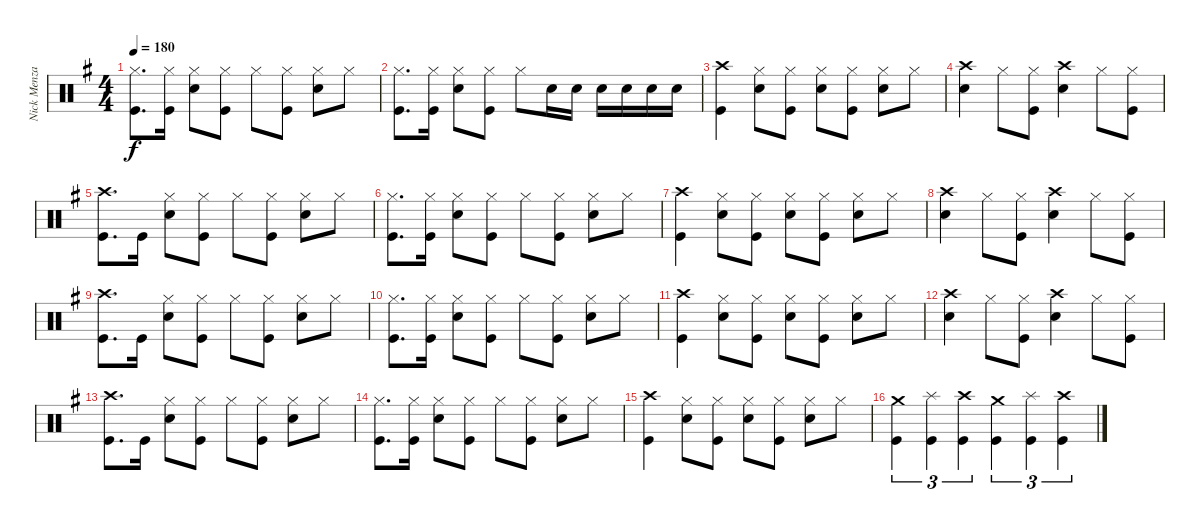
\track ("Nick Menza" "Nick Menza") {instrument percussion}
\staff {score}
\articulation defaults
\ts (4 4)
\tempo 180
\clef neutral
\ks g
("Kick (hit)" "Hi-Hat (closed)").8{d dy f} ("Kick (hit)" "Hi-Hat (closed)").16 ("Hi-Hat (closed)" "Snare (hit) 2").8 ("Kick (hit)" "Hi-Hat (closed)").8 "Hi-Hat (closed)".8 ("Kick (hit)" "Hi-Hat (closed)").8 ("Hi-Hat (closed)" "Snare (hit) 2").8 "Hi-Hat (closed)".8 |
("Kick (hit)" "Hi-Hat (closed)").8{d} ("Kick (hit)" "Hi-Hat (closed)").16 ("Hi-Hat (closed)" "Snare (hit) 2").8 ("Kick (hit)" "Hi-Hat (closed)").8 "Hi-Hat (closed)".8 "Snare (hit) 2".16 "Snare (hit) 2".16 "Snare (hit) 2".16 "Snare (hit) 2".16 "Snare (hit) 2".16 "Snare (hit) 2".16 |
("Crash high (hit)" "Kick (hit)").4 ("Hi-Hat (closed)" "Snare (hit) 2").8 ("Kick (hit)" "Hi-Hat (closed)").8 ("Hi-Hat (closed)" "Snare (hit) 2").8 ("Kick (hit)" "Hi-Hat (closed)").8 ("Hi-Hat (closed)" "Snare (hit) 2").8 "Hi-Hat (closed)".8 |
("Crash high (hit)" "Snare (hit) 2").4 "Hi-Hat (closed)".8 ("Kick (hit)" "Hi-Hat (closed)").8 ("Crash high (hit)" "Snare (hit) 2").4 "Hi-Hat (closed)".8 ("Kick (hit)" "Hi-Hat (closed)").8 |
("Kick (hit)" "Crash high (hit)").8{d} "Kick (hit)".16 ("Hi-Hat (closed)" "Snare (hit) 2").8 ("Kick (hit)" "Hi-Hat (closed)").8 "Hi-Hat (closed)".8 ("Kick (hit)" "Hi-Hat (closed)").8 ("Hi-Hat (closed)" "Snare (hit) 2").8 "Hi-Hat (closed)".8 |
("Kick (hit)" "Hi-Hat (closed)").8{d} ("Kick (hit)" "Hi-Hat (closed)").16 ("Hi-Hat (closed)" "Snare (hit) 2").8 ("Kick (hit)" "Hi-Hat (closed)").8 "Hi-Hat (closed)".8 ("Kick (hit)" "Hi-Hat (closed)").8 ("Hi-Hat (closed)" "Snare (hit) 2").8 "Hi-Hat (closed)".8 |
("Crash high (hit)" "Kick (hit)").4 ("Hi-Hat (closed)" "Snare (hit) 2").8 ("Kick (hit)" "Hi-Hat (closed)").8 ("Hi-Hat (closed)" "Snare (hit) 2").8 ("Kick (hit)" "Hi-Hat (closed)").8 ("Hi-Hat (closed)" "Snare (hit) 2").8 "Hi-Hat (closed)".8 |
("Crash high (hit)" "Snare (hit) 2").4 "Hi-Hat (closed)".8 ("Kick (hit)" "Hi-Hat (closed)").8 ("Crash high (hit)" "Snare (hit) 2").4 "Hi-Hat (closed)".8 ("Kick (hit)" "Hi-Hat (closed)").8 |
("Kick (hit)" "Crash high (hit)").8{d} "Kick (hit)".16 ("Hi-Hat (closed)" "Snare (hit) 2").8 ("Kick (hit)" "Hi-Hat (closed)").8 "Hi-Hat (closed)".8 ("Kick (hit)" "Hi-Hat (closed)").8 ("Hi-Hat (closed)" "Snare (hit) 2").8 "Hi-Hat (closed)".8 |
("Kick (hit)" "Hi-Hat (closed)").8{d} ("Kick (hit)" "Hi-Hat (closed)").16 ("Hi-Hat (closed)" "Snare (hit) 2").8 ("Kick (hit)" "Hi-Hat (closed)").8 "Hi-Hat (closed)".8 ("Kick (hit)" "Hi-Hat (closed)").8 ("Hi-Hat (closed)" "Snare (hit) 2").8 "Hi-Hat (closed)".8 |
("Crash high (hit)" "Kick (hit)").4 ("Hi-Hat (closed)" "Snare (hit) 2").8 ("Kick (hit)" "Hi-Hat (closed)").8 ("Hi-Hat (closed)" "Snare (hit) 2").8 ("Kick (hit)" "Hi-Hat (closed)").8 ("Hi-Hat (closed)" "Snare (hit) 2").8 "Hi-Hat (closed)".8 |
("Crash high (hit)" "Snare (hit) 2").4 "Hi-Hat (closed)".8 ("Kick (hit)" "Hi-Hat (closed)").8 ("Crash high (hit)" "Snare (hit) 2").4 "Hi-Hat (closed)".8 ("Kick (hit)" "Hi-Hat (closed)").8 |
("Kick (hit)" "Crash high (hit)").8{d} "Kick (hit)".16 ("Hi-Hat (closed)" "Snare (hit) 2").8 ("Kick (hit)" "Hi-Hat (closed)").8 "Hi-Hat (closed)".8 ("Kick (hit)" "Hi-Hat (closed)").8 ("Hi-Hat (closed)" "Snare (hit) 2").8 "Hi-Hat (closed)".8 |
("Kick (hit)" "Hi-Hat (closed)").8{d} ("Kick (hit)" "Hi-Hat (closed)").16 ("Hi-Hat (closed)" "Snare (hit) 2").8 ("Kick (hit)" "Hi-Hat (closed)").8 "Hi-Hat (closed)".8 ("Kick (hit)" "Hi-Hat (closed)").8 ("Hi-Hat (closed)" "Snare (hit) 2").8 "Hi-Hat (closed)".8 |
("Kick (hit)" "Crash high (hit)").4 ("Hi-Hat (closed)" "Snare (hit) 2").8 ("Kick (hit)" "Hi-Hat (closed)").8 ("Hi-Hat (closed)" "Snare (hit) 2").8 ("Kick (hit)" "Hi-Hat (closed)").8 ("Hi-Hat (closed)" "Snare (hit) 2").8 "Hi-Hat (closed)".8 |
("Kick (hit)" "Crash medium (hit)").4{tu (3 2)} ("Kick (hit)" "Splash (hit)").4{tu (3 2)} ("Kick (hit)" "Crash high (hit)").4{tu (3 2)} ("Kick (hit)" "Crash medium (hit)").4{tu (3 2)} ("Kick (hit)" "Splash (hit)").4{tu (3 2)} ("Kick (hit)" "Crash high (hit)").4{tu (3 2)}
